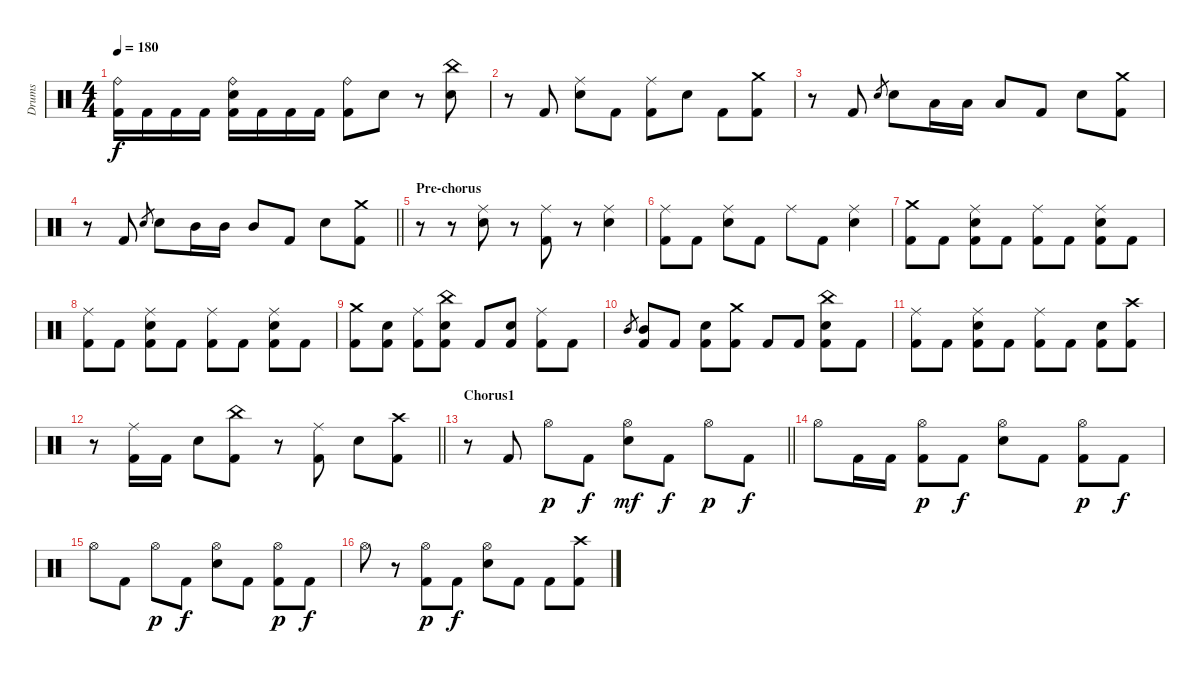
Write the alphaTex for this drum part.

\track ("Drums" "Drums") {instrument percussion}
\staff {score}
\articulation defaults
\ts (4 4)
\tempo 180
\clef neutral
\ks c
("Ride (bell)" "Kick (hit) 2").16{dy f} "Kick (hit) 2".16 "Kick (hit) 2".16 "Kick (hit) 2".16 ("Ride (bell)" "Electric Snare (hit)" "Kick (hit) 2").16 "Kick (hit) 2".16 "Kick (hit) 2".16 "Kick (hit) 2".16 ("Ride (bell)" "Kick (hit) 2").8 "Electric Snare (hit)".8 r.8 ("China (hit)" "Electric Snare (hit)").8 |
r.8 "Kick (hit) 2".8 ("Ride (middle)" "Electric Snare (hit)").8 "Kick (hit) 2".8 ("Ride (middle)" "Kick (hit) 2").8 "Electric Snare (hit)".8 "Kick (hit) 2".8 ("Crash medium (hit)" "Kick (hit) 2").8 |
r.8 "Kick (hit) 2".8 "Electric Snare (hit)".8{gr} "Electric Snare (hit)".8 "Low Tom (hit)".16 "Low Tom (hit)".16 "Low Tom (hit)".8 "Kick (hit) 2".8 "Electric Snare (hit)".8 ("Crash medium (hit)" "Kick (hit) 2").8 |
\barLineRight lightlight
r.8 "Kick (hit) 2".8 "Electric Snare (hit)".8{gr} "Electric Snare (hit)".8 "Mid Tom (hit)".16 "Mid Tom (hit)".16 "Mid Tom (hit)".8 "Kick (hit) 2".8 "Electric Snare (hit)".8 ("Crash medium (hit)" "Kick (hit) 2").8 |
\section ("" "Pre-chorus")
r.8 r.8 ("Ride (middle)" "Electric Snare (hit)").8 r.8 ("Ride (middle)" "Kick (hit) 2").8 r.8 ("Ride (middle)" "Electric Snare (hit)").4 |
("Ride (middle)" "Kick (hit) 2").8 "Kick (hit) 2".8 ("Ride (middle)" "Electric Snare (hit)").8 "Kick (hit) 2".8 "Ride (middle)".8 "Kick (hit) 2".8 ("Ride (middle)" "Electric Snare (hit)").4 |
("Crash medium (hit)" "Kick (hit) 2").8 "Kick (hit) 2".8 ("Ride (middle)" "Electric Snare (hit)" "Kick (hit) 2").8 "Kick (hit) 2".8 ("Ride (middle)" "Kick (hit) 2").8 "Kick (hit) 2".8 ("Ride (middle)" "Electric Snare (hit)" "Kick (hit) 2").8 "Kick (hit) 2".8 |
("Ride (middle)" "Kick (hit) 2").8 "Kick (hit) 2".8 ("Ride (middle)" "Electric Snare (hit)" "Kick (hit) 2").8 "Kick (hit) 2".8 ("Ride (middle)" "Kick (hit) 2").8 "Kick (hit) 2".8 ("Ride (middle)" "Electric Snare (hit)" "Kick (hit) 2").8 "Kick (hit) 2".8 |
("Crash medium (hit)" "Kick (hit) 2").8 ("Electric Snare (hit)" "Kick (hit) 2").8 ("Ride (middle)" "Kick (hit) 2").8 ("China (hit)" "Electric Snare (hit)" "Kick (hit) 2").8 "Kick (hit) 2".8 ("Electric Snare (hit)" "Kick (hit) 2").8 ("Ride (middle)" "Kick (hit) 2").8 "Kick (hit) 2".8 |
"Mid Tom (hit)".8{gr} ("Mid Tom (hit)" "Kick (hit) 2").8 "Kick (hit) 2".8 ("Electric Snare (hit)" "Kick (hit) 2").8 ("Crash medium (hit)" "Kick (hit) 2").8 "Kick (hit) 2".8 "Kick (hit) 2".8 ("China (hit)" "Electric Snare (hit)" "Kick (hit) 2").8 "Kick (hit) 2".8 |
("Ride (middle)" "Kick (hit) 2").8 "Kick (hit) 2".8 ("Ride (middle)" "Electric Snare (hit)" "Kick (hit) 2").8 "Kick (hit) 2".8 ("Ride (middle)" "Kick (hit) 2").8 "Kick (hit) 2".8 ("Electric Snare (hit)" "Kick (hit) 2").8 ("Crash high (hit)" "Kick (hit) 2").8 |
\barLineRight lightlight
r.8 ("Ride (middle)" "Kick (hit) 2").16 "Kick (hit) 2".16 "Electric Snare (hit)".8 ("China (hit)" "Kick (hit) 2").8 r.8 ("Ride (middle)" "Kick (hit) 2").8 "Electric Snare (hit)".8 ("Crash high (hit)" "Kick (hit) 2").8 |
\section ("" "Chorus1")
\barLineRight lightlight
r.8 "Kick (hit) 2".8 "Hi-Hat (open)".8{dy p} "Kick (hit) 2".8{dy f} ("Hi-Hat (open)" "Electric Snare (hit)").8{dy mf} "Kick (hit) 2".8{dy f} "Hi-Hat (open)".8{dy p} "Kick (hit) 2".8{dy f} |
"Hi-Hat (open)".8 "Kick (hit) 2".16 "Kick (hit) 2".16 ("Hi-Hat (open)" "Kick (hit) 2").8{dy p} "Kick (hit) 2".8{dy f} ("Hi-Hat (open)" "Electric Snare (hit)").8 "Kick (hit) 2".8 ("Hi-Hat (open)" "Kick (hit) 2").8{dy p} "Kick (hit) 2".8{dy f} |
"Hi-Hat (open)".8 "Kick (hit) 2".8 "Hi-Hat (open)".8{dy p} "Kick (hit) 2".8{dy f} ("Hi-Hat (open)" "Electric Snare (hit)").8 "Kick (hit) 2".8 ("Hi-Hat (open)" "Kick (hit) 2").8{dy p} "Kick (hit) 2".8{dy f} |
"Hi-Hat (open)".8 r.8 ("Hi-Hat (open)" "Kick (hit) 2").8{dy p} "Kick (hit) 2".8{dy f} ("Hi-Hat (open)" "Electric Snare (hit)").8 "Kick (hit) 2".8 "Kick (hit) 2".8 ("Crash high (hit)" "Kick (hit) 2").8
